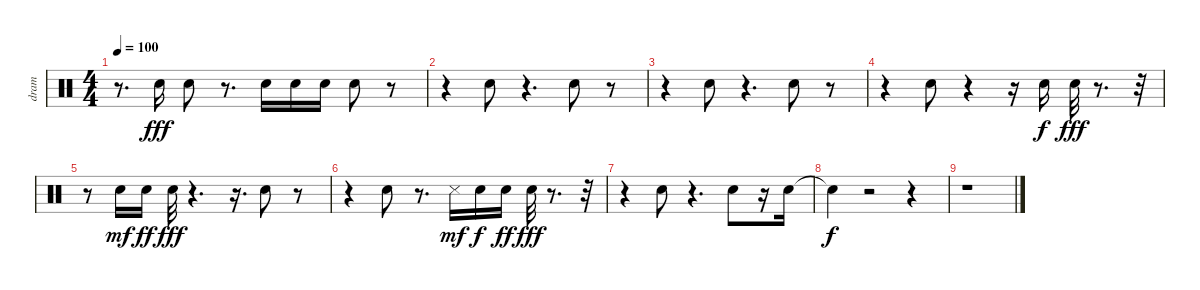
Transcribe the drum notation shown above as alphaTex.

\track ("dram" "dram") {instrument percussion}
\staff {score}
\articulation defaults
\ts (4 4)
\tempo 100
\clef neutral
\ks c
r.8{d dy fff} "Hand Clap (hit)".16 "Snare (hit) 2".8 r.8{d} "Snare (hit) 2".16 "Snare (hit) 2".16 "Snare (hit) 2".16 "Snare (hit) 2".8 r.8 |
r.4 "Snare (hit) 2".8 r.4{d} "Snare (hit) 2".8 r.8 |
r.4 "Snare (hit) 2".8 r.4{d} "Snare (hit) 2".8 r.8 |
r.4 "Snare (hit) 2".8 r.4 r.16 "Snare (hit) 2".16{dy f} "Snare (hit) 2".32{dy fff} r.8{d} r.32 |
r.8 "Snare (hit) 2".16{dy mf} "Snare (hit) 2".16{dy ff} "Snare (hit) 2".32{dy fff} r.4{d} r.16{d} "Snare (hit) 2".8 r.8 |
r.4 "Snare (hit) 2".8 r.8{d} "Snare (side stick) 3".16{dy mf} "Snare (hit) 2".16{dy f} "Snare (hit) 2".16{dy ff} "Snare (hit) 2".32{dy fff} r.8{d} r.32 |
r.4 "Snare (hit) 2".8 r.4{d} "Snare (hit) 2".8 r.16 "Snare (hit) 2".16 |
"Snare (hit)"{t}.4{dy f} r.2 r.4 |
r.1
